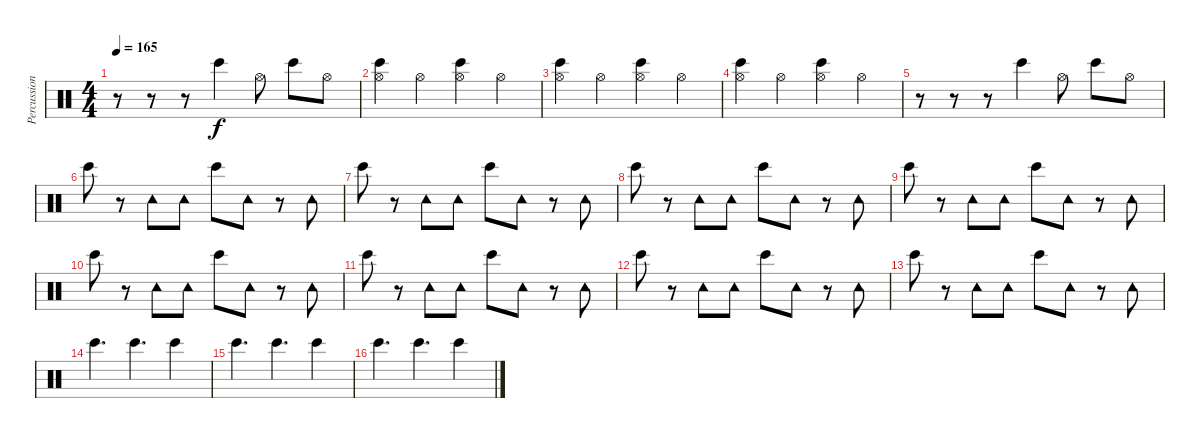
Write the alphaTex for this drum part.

\track ("Percussion" "Percussion") {instrument percussion}
\staff {score}
\articulation defaults
\ts (4 4)
\tempo 165
\clef neutral
\ks c
r.8{dy f} r.8 r.8 "Bongo High (hit)".4 "Hi-Hat (open)".8 "Bongo High (hit)".8 "Hi-Hat (open)".8 |
("Bongo High (hit)" "Hi-Hat (open)").4 "Hi-Hat (open)".4 ("Bongo High (hit)" "Hi-Hat (open)").4 "Hi-Hat (open)".4 |
("Bongo High (hit)" "Hi-Hat (open)").4 "Hi-Hat (open)".4 ("Bongo High (hit)" "Hi-Hat (open)").4 "Hi-Hat (open)".4 |
("Bongo High (hit)" "Hi-Hat (open)").4 "Hi-Hat (open)".4 ("Bongo High (hit)" "Hi-Hat (open)").4 "Hi-Hat (open)".4 |
r.8 r.8 r.8 "Bongo High (hit)".4 "Hi-Hat (open)".8 "Bongo High (hit)".8 "Hi-Hat (open)".8 |
"Bongo High (hit)".8 r.8 "Tambourine (hit)".8 "Tambourine (hit)".8 "Bongo High (hit)".8 "Tambourine (hit)".8 r.8 "Tambourine (hit)".8 |
"Bongo High (hit)".8 r.8 "Tambourine (hit)".8 "Tambourine (hit)".8 "Bongo High (hit)".8 "Tambourine (hit)".8 r.8 "Tambourine (hit)".8 |
"Bongo High (hit)".8 r.8 "Tambourine (hit)".8 "Tambourine (hit)".8 "Bongo High (hit)".8 "Tambourine (hit)".8 r.8 "Tambourine (hit)".8 |
"Bongo High (hit)".8 r.8 "Tambourine (hit)".8 "Tambourine (hit)".8 "Bongo High (hit)".8 "Tambourine (hit)".8 r.8 "Tambourine (hit)".8 |
"Bongo High (hit)".8 r.8 "Tambourine (hit)".8 "Tambourine (hit)".8 "Bongo High (hit)".8 "Tambourine (hit)".8 r.8 "Tambourine (hit)".8 |
"Bongo High (hit)".8 r.8 "Tambourine (hit)".8 "Tambourine (hit)".8 "Bongo High (hit)".8 "Tambourine (hit)".8 r.8 "Tambourine (hit)".8 |
"Bongo High (hit)".8 r.8 "Tambourine (hit)".8 "Tambourine (hit)".8 "Bongo High (hit)".8 "Tambourine (hit)".8 r.8 "Tambourine (hit)".8 |
"Bongo High (hit)".8 r.8 "Tambourine (hit)".8 "Tambourine (hit)".8 "Bongo High (hit)".8 "Tambourine (hit)".8 r.8 "Tambourine (hit)".8 |
"Bongo High (hit)".4{d} "Bongo High (hit)".4{d} "Bongo High (hit)".4 |
"Bongo High (hit)".4{d} "Bongo High (hit)".4{d} "Bongo High (hit)".4 |
"Bongo High (hit)".4{d} "Bongo High (hit)".4{d} "Bongo High (hit)".4
